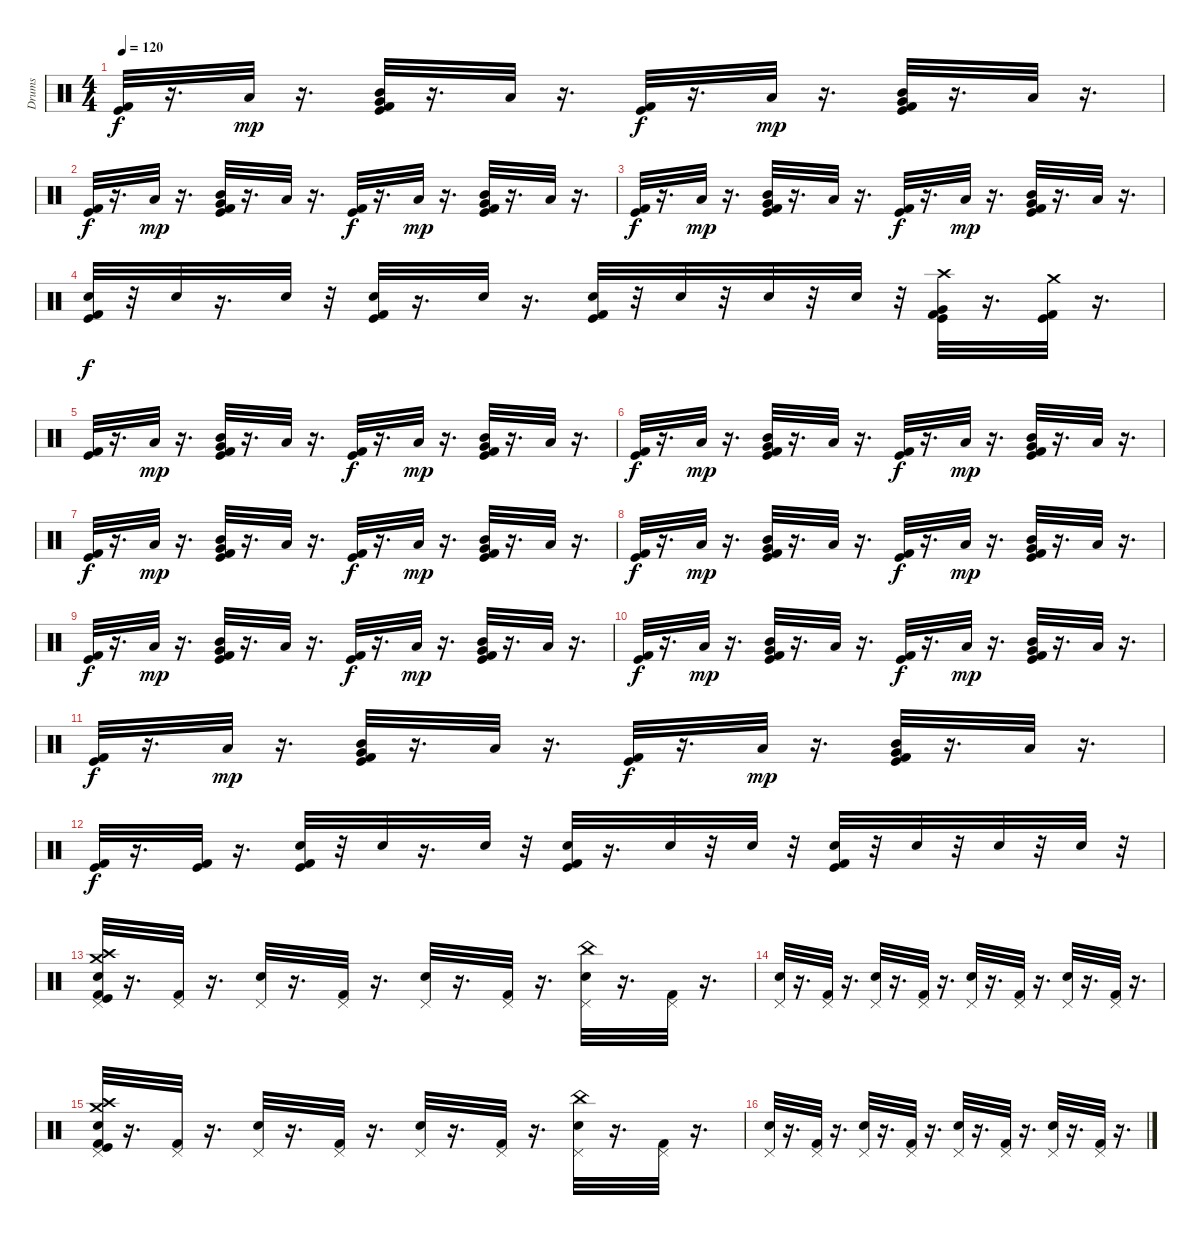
\track ("Drums" "Drums") {instrument percussion}
\staff {score}
\articulation defaults
\ts (4 4)
\tempo 120
\clef neutral
\ks c
("Kick (hit)" "Kick (hit) 2").32{dy f} r.16{d} "Low Tom (hit)".32{dy mp} r.16{d} ("Mid Tom (hit)" "Very Low Tom (hit)" "Kick (hit) 2" "Kick (hit)").32 r.16{d} "Low Tom (hit)".32 r.16{d} ("Kick (hit) 2" "Kick (hit)").32{dy f} r.16{d} "Low Tom (hit)".32{dy mp} r.16{d} ("Mid Tom (hit)" "Very Low Tom (hit)" "Kick (hit)" "Kick (hit) 2").32 r.16{d} "Low Tom (hit)".32 r.16{d} |
("Kick (hit)" "Kick (hit) 2").32{dy f} r.16{d} "Low Tom (hit)".32{dy mp} r.16{d} ("Mid Tom (hit)" "Very Low Tom (hit)" "Kick (hit)" "Kick (hit) 2").32 r.16{d} "Low Tom (hit)".32 r.16{d} ("Kick (hit) 2" "Kick (hit)").32{dy f} r.16{d} "Low Tom (hit)".32{dy mp} r.16{d} ("Mid Tom (hit)" "Very Low Tom (hit)" "Kick (hit) 2" "Kick (hit)").32 r.16{d} "Low Tom (hit)".32 r.16{d} |
("Kick (hit)" "Kick (hit) 2").32{dy f} r.16{d} "Low Tom (hit)".32{dy mp} r.16{d} ("Mid Tom (hit)" "Very Low Tom (hit)" "Kick (hit) 2" "Kick (hit)").32 r.16{d} "Low Tom (hit)".32 r.16{d} ("Kick (hit)" "Kick (hit) 2").32{dy f} r.16{d} "Low Tom (hit)".32{dy mp} r.16{d} ("Mid Tom (hit)" "Very Low Tom (hit)" "Kick (hit)" "Kick (hit) 2").32 r.16{d} "Low Tom (hit)".32 r.16{d} |
("Snare (hit) 2" "Kick (hit)" "Kick (hit) 2").32{dy f} r.32 "Snare (hit) 2".32 r.16{d} "Snare (hit) 2".32 r.32 ("Snare (hit) 2" "Kick (hit)" "Kick (hit) 2").32 r.16{d} "Snare (hit) 2".32 r.16{d} ("Snare (hit) 2" "Kick (hit) 2" "Kick (hit)").32 r.32 "Snare (hit) 2".32 r.32 "Snare (hit) 2".32 r.32 "Snare (hit) 2".32 r.32 ("Crash high (hit)" "Very Low Tom (hit)" "Kick (hit)" "Kick (hit) 2").32 r.16{d} ("Kick (hit)" "Kick (hit) 2" "Crash medium (hit)").32 r.16{d} |
("Kick (hit) 2" "Kick (hit)").32 r.16{d} "Low Tom (hit)".32{dy mp} r.16{d} ("Mid Tom (hit)" "Very Low Tom (hit)" "Kick (hit)" "Kick (hit) 2").32 r.16{d} "Low Tom (hit)".32 r.16{d} ("Kick (hit)" "Kick (hit) 2").32{dy f} r.16{d} "Low Tom (hit)".32{dy mp} r.16{d} ("Mid Tom (hit)" "Very Low Tom (hit)" "Kick (hit) 2" "Kick (hit)").32 r.16{d} "Low Tom (hit)".32 r.16{d} |
("Kick (hit)" "Kick (hit) 2").32{dy f} r.16{d} "Low Tom (hit)".32{dy mp} r.16{d} ("Mid Tom (hit)" "Kick (hit)" "Kick (hit) 2" "Very Low Tom (hit)").32 r.16{d} "Low Tom (hit)".32 r.16{d} ("Kick (hit) 2" "Kick (hit)").32{dy f} r.16{d} "Low Tom (hit)".32{dy mp} r.16{d} ("Mid Tom (hit)" "Very Low Tom (hit)" "Kick (hit)" "Kick (hit) 2").32 r.16{d} "Low Tom (hit)".32 r.16{d} |
("Kick (hit)" "Kick (hit) 2").32{dy f} r.16{d} "Low Tom (hit)".32{dy mp} r.16{d} ("Mid Tom (hit)" "Very Low Tom (hit)" "Kick (hit) 2" "Kick (hit)").32 r.16{d} "Low Tom (hit)".32 r.16{d} ("Kick (hit) 2" "Kick (hit)").32{dy f} r.16{d} "Low Tom (hit)".32{dy mp} r.16{d} ("Mid Tom (hit)" "Very Low Tom (hit)" "Kick (hit)" "Kick (hit) 2").32 r.16{d} "Low Tom (hit)".32 r.16{d} |
("Kick (hit)" "Kick (hit) 2").32{dy f} r.16{d} "Low Tom (hit)".32{dy mp} r.16{d} ("Mid Tom (hit)" "Very Low Tom (hit)" "Kick (hit)" "Kick (hit) 2").32 r.16{d} "Low Tom (hit)".32 r.16{d} ("Kick (hit) 2" "Kick (hit)").32{dy f} r.16{d} "Low Tom (hit)".32{dy mp} r.16{d} ("Mid Tom (hit)" "Very Low Tom (hit)" "Kick (hit) 2" "Kick (hit)").32 r.16{d} "Low Tom (hit)".32 r.16{d} |
("Kick (hit) 2" "Kick (hit)").32{dy f} r.16{d} "Low Tom (hit)".32{dy mp} r.16{d} ("Mid Tom (hit)" "Very Low Tom (hit)" "Kick (hit)" "Kick (hit) 2").32 r.16{d} "Low Tom (hit)".32 r.16{d} ("Kick (hit)" "Kick (hit) 2").32{dy f} r.16{d} "Low Tom (hit)".32{dy mp} r.16{d} ("Mid Tom (hit)" "Very Low Tom (hit)" "Kick (hit) 2" "Kick (hit)").32 r.16{d} "Low Tom (hit)".32 r.16{d} |
("Kick (hit)" "Kick (hit) 2").32{dy f} r.16{d} "Low Tom (hit)".32{dy mp} r.16{d} ("Mid Tom (hit)" "Kick (hit)" "Kick (hit) 2" "Very Low Tom (hit)").32 r.16{d} "Low Tom (hit)".32 r.16{d} ("Kick (hit) 2" "Kick (hit)").32{dy f} r.16{d} "Low Tom (hit)".32{dy mp} r.16{d} ("Mid Tom (hit)" "Very Low Tom (hit)" "Kick (hit)" "Kick (hit) 2").32 r.16{d} "Low Tom (hit)".32 r.16{d} |
("Kick (hit)" "Kick (hit) 2").32{dy f} r.16{d} "Low Tom (hit)".32{dy mp} r.16{d} ("Mid Tom (hit)" "Very Low Tom (hit)" "Kick (hit) 2" "Kick (hit)").32 r.16{d} "Low Tom (hit)".32 r.16{d} ("Kick (hit) 2" "Kick (hit)").32{dy f} r.16{d} "Low Tom (hit)".32{dy mp} r.16{d} ("Mid Tom (hit)" "Very Low Tom (hit)" "Kick (hit)" "Kick (hit) 2").32 r.16{d} "Low Tom (hit)".32 r.16{d} |
("Kick (hit)" "Kick (hit) 2").32{dy f} r.16{d} ("Kick (hit)" "Kick (hit) 2").32 r.16{d} ("Snare (hit) 2" "Kick (hit)" "Kick (hit) 2").32 r.32 "Snare (hit) 2".32 r.16{d} "Snare (hit) 2".32 r.32 ("Snare (hit) 2" "Kick (hit) 2" "Kick (hit)").32 r.16{d} "Snare (hit) 2".32 r.32 "Snare (hit) 2".32 r.32 ("Snare (hit) 2" "Kick (hit) 2" "Kick (hit)").32 r.32 "Snare (hit) 2".32 r.32 "Snare (hit) 2".32 r.32 "Snare (hit) 2".32 r.32 |
("Pedal Hi-Hat (hit)" "Kick (hit)" "Kick (hit) 2" "Crash medium (hit)" "Crash high (hit)" "Snare (hit) 2").32 r.16{d} ("Pedal Hi-Hat (hit)" "Kick (hit) 2").32 r.16{d} ("Snare (hit) 2" "Pedal Hi-Hat (hit)").32 r.16{d} ("Pedal Hi-Hat (hit)" "Kick (hit) 2").32 r.16{d} ("Snare (hit) 2" "Pedal Hi-Hat (hit)").32 r.16{d} ("Pedal Hi-Hat (hit)" "Kick (hit) 2").32 r.16{d} ("China (hit)" "Pedal Hi-Hat (hit)" "Snare (hit) 2").32 r.16{d} ("Pedal Hi-Hat (hit)" "Kick (hit) 2").32 r.16{d} |
("Pedal Hi-Hat (hit)" "Snare (hit) 2").32 r.16{d} ("Kick (hit) 2" "Pedal Hi-Hat (hit)").32 r.16{d} ("Pedal Hi-Hat (hit)" "Snare (hit) 2").32 r.16{d} ("Pedal Hi-Hat (hit)" "Kick (hit) 2").32 r.16{d} ("Pedal Hi-Hat (hit)" "Snare (hit) 2").32 r.16{d} ("Pedal Hi-Hat (hit)" "Kick (hit) 2").32 r.16{d} ("Pedal Hi-Hat (hit)" "Snare (hit) 2").32 r.16{d} ("Pedal Hi-Hat (hit)" "Kick (hit) 2").32 r.16{d} |
("Crash medium (hit)" "Kick (hit)" "Kick (hit) 2" "Snare (hit) 2" "Pedal Hi-Hat (hit)" "Crash high (hit)").32 r.16{d} ("Pedal Hi-Hat (hit)" "Kick (hit) 2").32 r.16{d} ("Snare (hit) 2" "Pedal Hi-Hat (hit)").32 r.16{d} ("Pedal Hi-Hat (hit)" "Kick (hit) 2").32 r.16{d} ("Pedal Hi-Hat (hit)" "Snare (hit) 2").32 r.16{d} ("Kick (hit) 2" "Pedal Hi-Hat (hit)").32 r.16{d} ("China (hit)" "Pedal Hi-Hat (hit)" "Snare (hit) 2").32 r.16{d} ("Pedal Hi-Hat (hit)" "Kick (hit) 2").32 r.16{d} |
("Snare (hit) 2" "Pedal Hi-Hat (hit)").32 r.16{d} ("Kick (hit) 2" "Pedal Hi-Hat (hit)").32 r.16{d} ("Pedal Hi-Hat (hit)" "Snare (hit) 2").32 r.16{d} ("Kick (hit) 2" "Pedal Hi-Hat (hit)").32 r.16{d} ("Pedal Hi-Hat (hit)" "Snare (hit) 2").32 r.16{d} ("Pedal Hi-Hat (hit)" "Kick (hit) 2").32 r.16{d} ("Snare (hit) 2" "Pedal Hi-Hat (hit)").32 r.16{d} ("Kick (hit) 2" "Pedal Hi-Hat (hit)").32 r.16{d}
